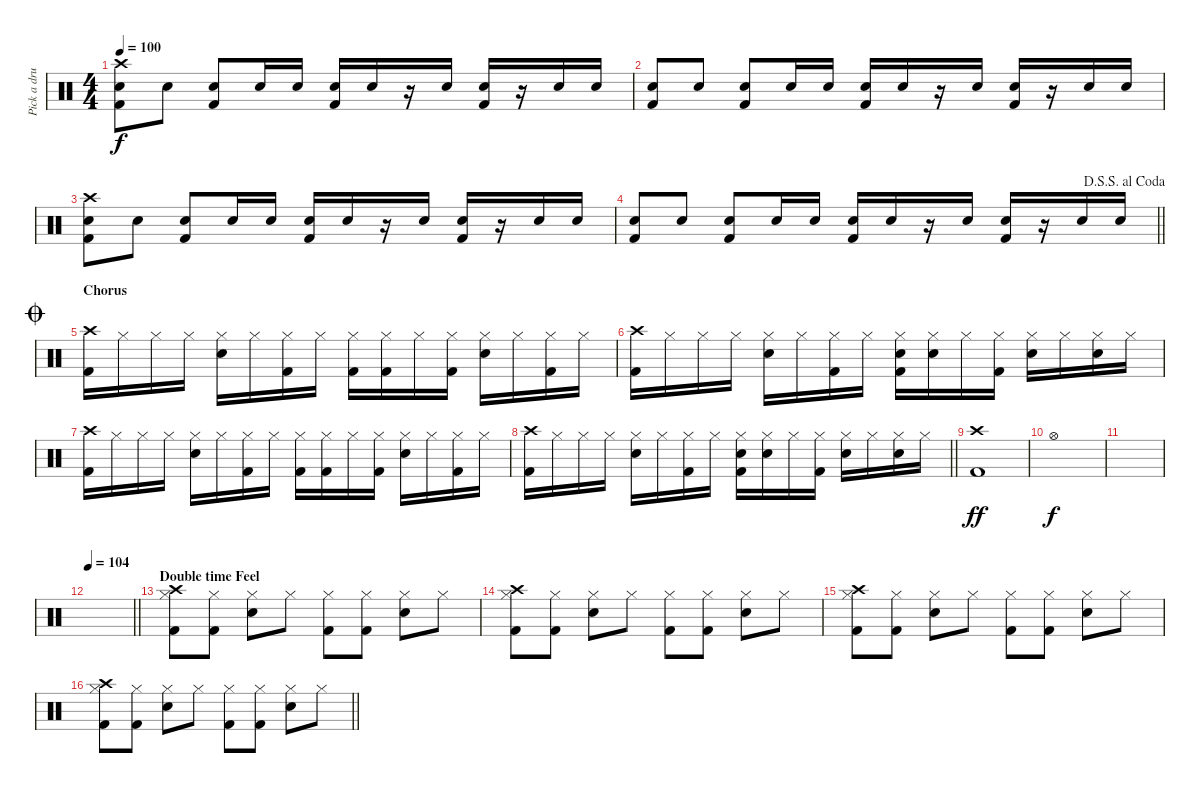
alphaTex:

\track ("Pick a drummer any drummer" "Pick a dru") {instrument percussion}
\staff {score}
\articulation defaults
\ts (4 4)
\tempo 100
\clef neutral
\ks c
("Snare (hit) 2" "Kick (hit) 2" "Crash high (hit)").8{dy f} "Snare (hit) 2".8 ("Snare (hit) 2" "Kick (hit) 2").8 "Snare (hit) 2".16 "Snare (hit) 2".16 ("Snare (hit) 2" "Kick (hit) 2").16 "Snare (hit) 2".16 r.16 "Snare (hit) 2".16 ("Snare (hit) 2" "Kick (hit) 2").16 r.16 "Snare (hit) 2".16 "Snare (hit) 2".16 |
("Snare (hit) 2" "Kick (hit) 2").8 "Snare (hit) 2".8 ("Snare (hit) 2" "Kick (hit) 2").8 "Snare (hit) 2".16 "Snare (hit) 2".16 ("Snare (hit) 2" "Kick (hit) 2").16 "Snare (hit) 2".16 r.16 "Snare (hit) 2".16 ("Snare (hit) 2" "Kick (hit) 2").16 r.16 "Snare (hit) 2".16 "Snare (hit) 2".16 |
("Snare (hit) 2" "Kick (hit) 2" "Crash high (hit)").8 "Snare (hit) 2".8 ("Snare (hit) 2" "Kick (hit) 2").8 "Snare (hit) 2".16 "Snare (hit) 2".16 ("Snare (hit) 2" "Kick (hit) 2").16 "Snare (hit) 2".16 r.16 "Snare (hit) 2".16 ("Snare (hit) 2" "Kick (hit) 2").16 r.16 "Snare (hit) 2".16 "Snare (hit) 2".16 |
\jump dalsegnosegnoalcoda
\barLineRight lightlight
("Snare (hit) 2" "Kick (hit) 2").8 "Snare (hit) 2".8 ("Snare (hit) 2" "Kick (hit) 2").8 "Snare (hit) 2".16 "Snare (hit) 2".16 ("Snare (hit) 2" "Kick (hit) 2").16 "Snare (hit) 2".16 r.16 "Snare (hit) 2".16 ("Snare (hit) 2" "Kick (hit) 2").16 r.16 "Snare (hit) 2".16 "Snare (hit) 2".16 |
\section ("" "Chorus")
\jump coda
("Kick (hit) 2" "Crash high (hit)").16 "Hi-Hat (closed)".16 "Hi-Hat (closed)".16 "Hi-Hat (closed)".16 ("Hi-Hat (closed)" "Snare (hit) 2").16 "Hi-Hat (closed)".16 ("Hi-Hat (closed)" "Kick (hit) 2").16 "Hi-Hat (closed)".16 ("Hi-Hat (closed)" "Kick (hit) 2").16 ("Hi-Hat (closed)" "Kick (hit) 2").16 "Hi-Hat (closed)".16 ("Hi-Hat (closed)" "Kick (hit) 2").16 ("Hi-Hat (closed)" "Snare (hit) 2").16 "Hi-Hat (closed)".16 ("Hi-Hat (closed)" "Kick (hit) 2").16 "Hi-Hat (closed)".16 |
("Kick (hit) 2" "Crash high (hit)").16 "Hi-Hat (closed)".16 "Hi-Hat (closed)".16 "Hi-Hat (closed)".16 ("Hi-Hat (closed)" "Snare (hit) 2").16 "Hi-Hat (closed)".16 ("Hi-Hat (closed)" "Kick (hit) 2").16 "Hi-Hat (closed)".16 ("Hi-Hat (closed)" "Snare (hit) 2" "Kick (hit) 2").16 ("Hi-Hat (closed)" "Snare (hit) 2").16 "Hi-Hat (closed)".16 ("Hi-Hat (closed)" "Kick (hit) 2").16 ("Hi-Hat (closed)" "Snare (hit) 2").16 "Hi-Hat (closed)".16 ("Hi-Hat (closed)" "Snare (hit) 2").16 "Hi-Hat (closed)".16 |
("Kick (hit) 2" "Crash high (hit)").16 "Hi-Hat (closed)".16 "Hi-Hat (closed)".16 "Hi-Hat (closed)".16 ("Hi-Hat (closed)" "Snare (hit) 2").16 "Hi-Hat (closed)".16 ("Hi-Hat (closed)" "Kick (hit) 2").16 "Hi-Hat (closed)".16 ("Hi-Hat (closed)" "Kick (hit) 2").16 ("Hi-Hat (closed)" "Kick (hit) 2").16 "Hi-Hat (closed)".16 ("Hi-Hat (closed)" "Kick (hit) 2").16 ("Hi-Hat (closed)" "Snare (hit) 2").16 "Hi-Hat (closed)".16 ("Hi-Hat (closed)" "Kick (hit) 2").16 "Hi-Hat (closed)".16 |
\barLineRight lightlight
("Kick (hit) 2" "Crash high (hit)").16 "Hi-Hat (closed)".16 "Hi-Hat (closed)".16 "Hi-Hat (closed)".16 ("Hi-Hat (closed)" "Snare (hit) 2").16 "Hi-Hat (closed)".16 ("Hi-Hat (closed)" "Kick (hit) 2").16 "Hi-Hat (closed)".16 ("Hi-Hat (closed)" "Snare (hit) 2" "Kick (hit) 2").16 ("Hi-Hat (closed)" "Snare (hit) 2").16 "Hi-Hat (closed)".16 ("Hi-Hat (closed)" "Kick (hit) 2").16 ("Hi-Hat (closed)" "Snare (hit) 2").16 "Hi-Hat (closed)".16 ("Hi-Hat (closed)" "Snare (hit) 2").16 "Hi-Hat (closed)".16 |
("Kick (hit) 2" "Crash high (hit)").1{dy ff} |
"Hi-Hat (open)".1{dy f} |
|
\tempo 104
\barLineRight lightlight
|
\section ("" "Double time Feel")
("Hi-Hat (closed)" "Kick (hit) 2" "Crash high (hit)").8 ("Hi-Hat (closed)" "Kick (hit) 2").8 ("Hi-Hat (closed)" "Snare (hit) 2").8 "Hi-Hat (closed)".8 ("Hi-Hat (closed)" "Kick (hit) 2").8 ("Hi-Hat (closed)" "Kick (hit) 2").8 ("Hi-Hat (closed)" "Snare (hit) 2").8 "Hi-Hat (closed)".8 |
("Hi-Hat (closed)" "Kick (hit) 2" "Crash high (hit)").8 ("Hi-Hat (closed)" "Kick (hit) 2").8 ("Hi-Hat (closed)" "Snare (hit) 2").8 "Hi-Hat (closed)".8 ("Hi-Hat (closed)" "Kick (hit) 2").8 ("Hi-Hat (closed)" "Kick (hit) 2").8 ("Hi-Hat (closed)" "Snare (hit) 2").8 "Hi-Hat (closed)".8 |
("Hi-Hat (closed)" "Kick (hit) 2" "Crash high (hit)").8 ("Hi-Hat (closed)" "Kick (hit) 2").8 ("Hi-Hat (closed)" "Snare (hit) 2").8 "Hi-Hat (closed)".8 ("Hi-Hat (closed)" "Kick (hit) 2").8 ("Hi-Hat (closed)" "Kick (hit) 2").8 ("Hi-Hat (closed)" "Snare (hit) 2").8 "Hi-Hat (closed)".8 |
\barLineRight lightlight
("Hi-Hat (closed)" "Kick (hit) 2" "Crash high (hit)").8 ("Hi-Hat (closed)" "Kick (hit) 2").8 ("Hi-Hat (closed)" "Snare (hit) 2").8 "Hi-Hat (closed)".8 ("Hi-Hat (closed)" "Kick (hit) 2").8 ("Hi-Hat (closed)" "Kick (hit) 2").8 ("Hi-Hat (closed)" "Snare (hit) 2").8 "Hi-Hat (closed)".8
